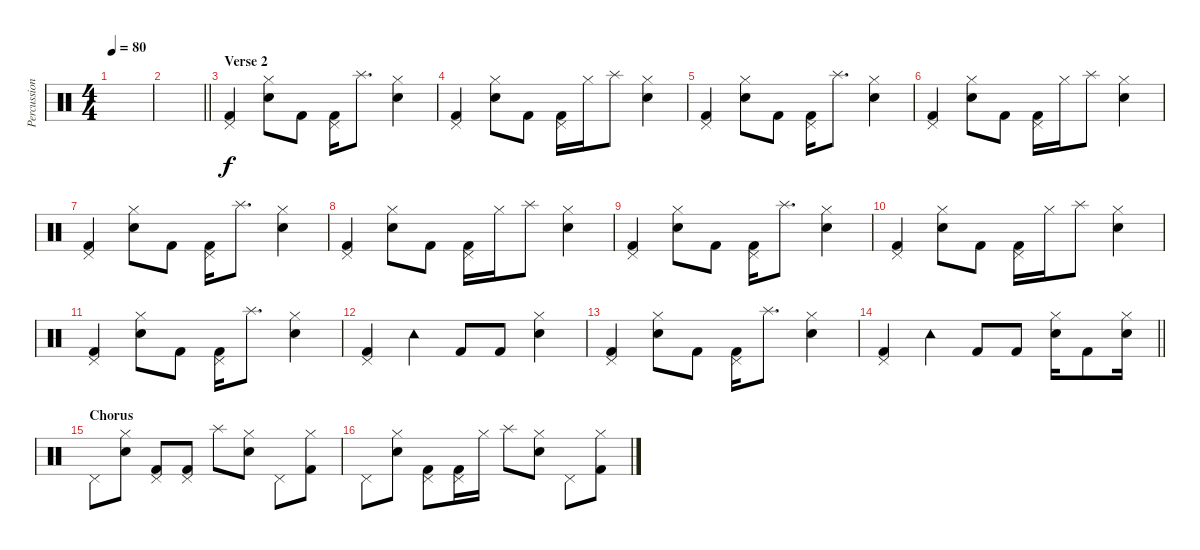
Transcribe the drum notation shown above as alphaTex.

\track ("Percussion" "Percussion") {instrument percussion}
\staff {score}
\articulation defaults
\ts (4 4)
\tempo 80
\clef neutral
\ks c
|
\barLineRight lightlight
|
\section ("" "Verse 2")
("Pedal Hi-Hat (hit)" "Kick (hit) 2").4 ("Hi-Hat (closed)" "Electric Snare (hit)").8 "Kick (hit) 2".8 ("Pedal Hi-Hat (hit)" "Kick (hit) 2").16 "Splash (hit)".8{d} ("Hi-Hat (closed)" "Electric Snare (hit)").4 |
("Pedal Hi-Hat (hit)" "Kick (hit) 2").4 ("Hi-Hat (closed)" "Electric Snare (hit)").8 "Kick (hit) 2".8 ("Pedal Hi-Hat (hit)" "Kick (hit) 2").16 "Hi-Hat (closed)".16 "Splash (hit)".8 ("Hi-Hat (closed)" "Electric Snare (hit)").4 |
("Pedal Hi-Hat (hit)" "Kick (hit) 2").4 ("Hi-Hat (closed)" "Electric Snare (hit)").8 "Kick (hit) 2".8 ("Pedal Hi-Hat (hit)" "Kick (hit) 2").16 "Splash (hit)".8{d} ("Hi-Hat (closed)" "Electric Snare (hit)").4 |
("Pedal Hi-Hat (hit)" "Kick (hit) 2").4 ("Hi-Hat (closed)" "Electric Snare (hit)").8 "Kick (hit) 2".8 ("Pedal Hi-Hat (hit)" "Kick (hit) 2").16 "Hi-Hat (closed)".16 "Splash (hit)".8 ("Hi-Hat (closed)" "Electric Snare (hit)").4 |
("Pedal Hi-Hat (hit)" "Kick (hit) 2").4 ("Hi-Hat (closed)" "Electric Snare (hit)").8 "Kick (hit) 2".8 ("Pedal Hi-Hat (hit)" "Kick (hit) 2").16 "Splash (hit)".8{d} ("Hi-Hat (closed)" "Electric Snare (hit)").4 |
("Pedal Hi-Hat (hit)" "Kick (hit) 2").4 ("Hi-Hat (closed)" "Electric Snare (hit)").8 "Kick (hit) 2".8 ("Pedal Hi-Hat (hit)" "Kick (hit) 2").16 "Hi-Hat (closed)".16 "Splash (hit)".8 ("Hi-Hat (closed)" "Electric Snare (hit)").4 |
("Pedal Hi-Hat (hit)" "Kick (hit) 2").4 ("Hi-Hat (closed)" "Electric Snare (hit)").8 "Kick (hit) 2".8 ("Pedal Hi-Hat (hit)" "Kick (hit) 2").16 "Splash (hit)".8{d} ("Hi-Hat (closed)" "Electric Snare (hit)").4 |
("Pedal Hi-Hat (hit)" "Kick (hit) 2").4 ("Hi-Hat (closed)" "Electric Snare (hit)").8 "Kick (hit) 2".8 ("Pedal Hi-Hat (hit)" "Kick (hit) 2").16 "Hi-Hat (closed)".16 "Splash (hit)".8 ("Hi-Hat (closed)" "Electric Snare (hit)").4 |
("Pedal Hi-Hat (hit)" "Kick (hit) 2").4 ("Hi-Hat (closed)" "Electric Snare (hit)").8 "Kick (hit) 2".8 ("Pedal Hi-Hat (hit)" "Kick (hit) 2").16 "Splash (hit)".8{d} ("Hi-Hat (closed)" "Electric Snare (hit)").4 |
("Pedal Hi-Hat (hit)" "Kick (hit) 2").4 "Tambourine (hit)".4 "Kick (hit) 2".8 "Kick (hit) 2".8 ("Hi-Hat (closed)" "Electric Snare (hit)").4 |
("Pedal Hi-Hat (hit)" "Kick (hit) 2").4 ("Hi-Hat (closed)" "Electric Snare (hit)").8 "Kick (hit) 2".8 ("Pedal Hi-Hat (hit)" "Kick (hit) 2").16 "Splash (hit)".8{d} ("Hi-Hat (closed)" "Electric Snare (hit)").4 |
\barLineRight lightlight
("Pedal Hi-Hat (hit)" "Kick (hit) 2").4 "Tambourine (hit)".4 "Kick (hit) 2".8 "Kick (hit) 2".8 ("Hi-Hat (closed)" "Electric Snare (hit)").16 "Kick (hit) 2".8 ("Hi-Hat (closed)" "Electric Snare (hit)").16 |
\section ("" "Chorus")
"Pedal Hi-Hat (hit)".8 ("Hi-Hat (closed)" "Electric Snare (hit)").8 ("Pedal Hi-Hat (hit)" "Kick (hit) 2").8 ("Pedal Hi-Hat (hit)" "Kick (hit) 2").8 "Splash (hit)".8 ("Hi-Hat (closed)" "Electric Snare (hit)").8 "Pedal Hi-Hat (hit)".8 ("Hi-Hat (closed)" "Kick (hit) 2").8 |
"Pedal Hi-Hat (hit)".8 ("Hi-Hat (closed)" "Electric Snare (hit)").8 ("Pedal Hi-Hat (hit)" "Kick (hit) 2").8 ("Pedal Hi-Hat (hit)" "Kick (hit) 2").16 "Hi-Hat (closed)".16 "Splash (hit)".8 ("Hi-Hat (closed)" "Electric Snare (hit)").8 "Pedal Hi-Hat (hit)".8 ("Hi-Hat (closed)" "Kick (hit) 2").8
